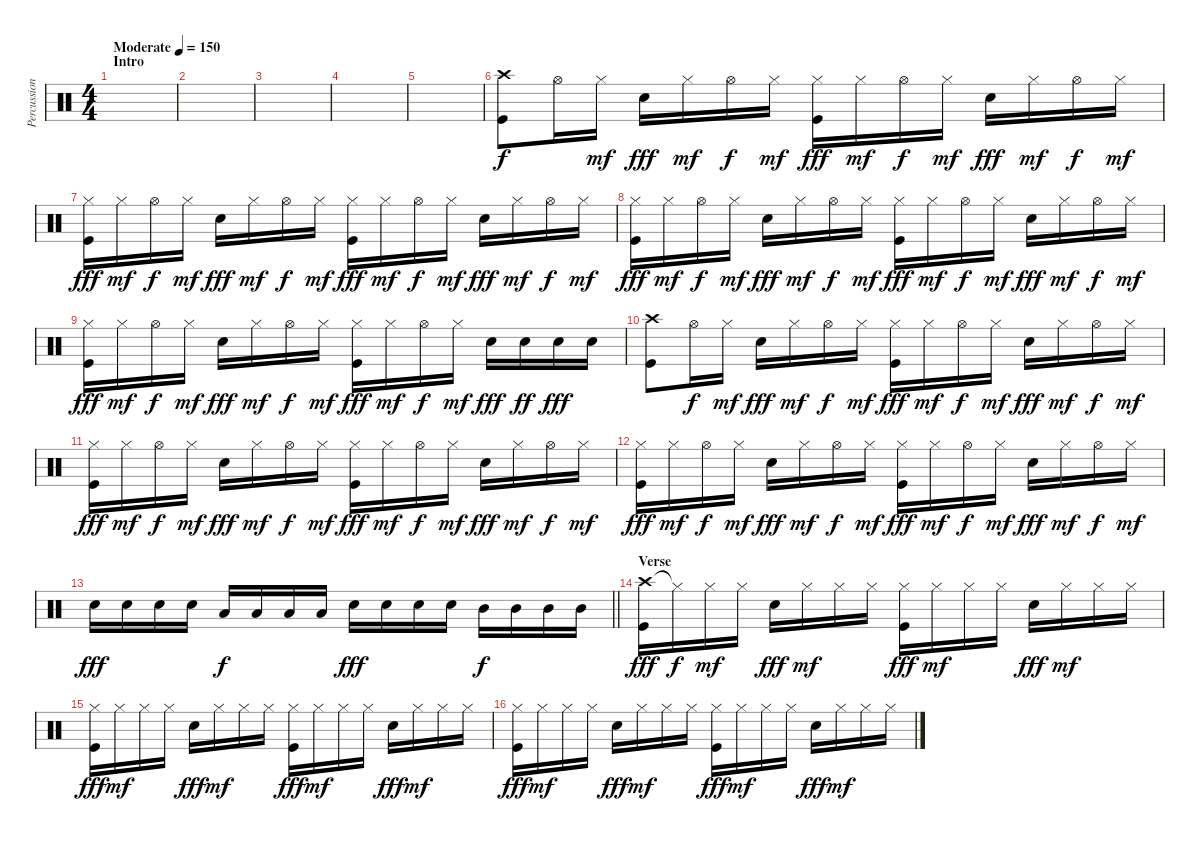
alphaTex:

\track ("Percussion" "Percussion") {instrument percussion}
\staff {score}
\articulation defaults
\ts (4 4)
\section ("" "Intro")
\tempo (150 "Moderate")
\clef neutral
\ks c
|
|
|
|
|
("Crash high (hit)" "Kick (hit)").8 "Hi-Hat (open)".16{dy f} "Hi-Hat (closed)".16{dy mf} "Electric Snare (hit)".16{dy fff} "Hi-Hat (closed)".16{dy mf} "Hi-Hat (open)".16{dy f} "Hi-Hat (closed)".16{dy mf} ("Hi-Hat (closed)" "Kick (hit)").16{dy fff} "Hi-Hat (closed)".16{dy mf} "Hi-Hat (open)".16{dy f} "Hi-Hat (closed)".16{dy mf} "Electric Snare (hit)".16{dy fff} "Hi-Hat (closed)".16{dy mf} "Hi-Hat (open)".16{dy f} "Hi-Hat (closed)".16{dy mf} |
("Hi-Hat (closed)" "Kick (hit)").16{dy fff} "Hi-Hat (closed)".16{dy mf} "Hi-Hat (open)".16{dy f} "Hi-Hat (closed)".16{dy mf} "Electric Snare (hit)".16{dy fff} "Hi-Hat (closed)".16{dy mf} "Hi-Hat (open)".16{dy f} "Hi-Hat (closed)".16{dy mf} ("Hi-Hat (closed)" "Kick (hit)").16{dy fff} "Hi-Hat (closed)".16{dy mf} "Hi-Hat (open)".16{dy f} "Hi-Hat (closed)".16{dy mf} "Electric Snare (hit)".16{dy fff} "Hi-Hat (closed)".16{dy mf} "Hi-Hat (open)".16{dy f} "Hi-Hat (closed)".16{dy mf} |
("Hi-Hat (closed)" "Kick (hit)").16{dy fff} "Hi-Hat (closed)".16{dy mf} "Hi-Hat (open)".16{dy f} "Hi-Hat (closed)".16{dy mf} "Electric Snare (hit)".16{dy fff} "Hi-Hat (closed)".16{dy mf} "Hi-Hat (open)".16{dy f} "Hi-Hat (closed)".16{dy mf} ("Hi-Hat (closed)" "Kick (hit)").16{dy fff} "Hi-Hat (closed)".16{dy mf} "Hi-Hat (open)".16{dy f} "Hi-Hat (closed)".16{dy mf} "Electric Snare (hit)".16{dy fff} "Hi-Hat (closed)".16{dy mf} "Hi-Hat (open)".16{dy f} "Hi-Hat (closed)".16{dy mf} |
("Hi-Hat (closed)" "Kick (hit)").16{dy fff} "Hi-Hat (closed)".16{dy mf} "Hi-Hat (open)".16{dy f} "Hi-Hat (closed)".16{dy mf} "Electric Snare (hit)".16{dy fff} "Hi-Hat (closed)".16{dy mf} "Hi-Hat (open)".16{dy f} "Hi-Hat (closed)".16{dy mf} ("Hi-Hat (closed)" "Kick (hit)").16{dy fff} "Hi-Hat (closed)".16{dy mf} "Hi-Hat (open)".16{dy f} "Hi-Hat (closed)".16{dy mf} "Electric Snare (hit)".16{dy fff} "Electric Snare (hit)".16{dy ff} "Electric Snare (hit)".16{dy fff} "Electric Snare (hit)".16 |
("Crash high (hit)" "Kick (hit)").8 "Hi-Hat (open)".16{dy f} "Hi-Hat (closed)".16{dy mf} "Electric Snare (hit)".16{dy fff} "Hi-Hat (closed)".16{dy mf} "Hi-Hat (open)".16{dy f} "Hi-Hat (closed)".16{dy mf} ("Hi-Hat (closed)" "Kick (hit)").16{dy fff} "Hi-Hat (closed)".16{dy mf} "Hi-Hat (open)".16{dy f} "Hi-Hat (closed)".16{dy mf} "Electric Snare (hit)".16{dy fff} "Hi-Hat (closed)".16{dy mf} "Hi-Hat (open)".16{dy f} "Hi-Hat (closed)".16{dy mf} |
("Hi-Hat (closed)" "Kick (hit)").16{dy fff} "Hi-Hat (closed)".16{dy mf} "Hi-Hat (open)".16{dy f} "Hi-Hat (closed)".16{dy mf} "Electric Snare (hit)".16{dy fff} "Hi-Hat (closed)".16{dy mf} "Hi-Hat (open)".16{dy f} "Hi-Hat (closed)".16{dy mf} ("Hi-Hat (closed)" "Kick (hit)").16{dy fff} "Hi-Hat (closed)".16{dy mf} "Hi-Hat (open)".16{dy f} "Hi-Hat (closed)".16{dy mf} "Electric Snare (hit)".16{dy fff} "Hi-Hat (closed)".16{dy mf} "Hi-Hat (open)".16{dy f} "Hi-Hat (closed)".16{dy mf} |
("Hi-Hat (closed)" "Kick (hit)").16{dy fff} "Hi-Hat (closed)".16{dy mf} "Hi-Hat (open)".16{dy f} "Hi-Hat (closed)".16{dy mf} "Electric Snare (hit)".16{dy fff} "Hi-Hat (closed)".16{dy mf} "Hi-Hat (open)".16{dy f} "Hi-Hat (closed)".16{dy mf} ("Hi-Hat (closed)" "Kick (hit)").16{dy fff} "Hi-Hat (closed)".16{dy mf} "Hi-Hat (open)".16{dy f} "Hi-Hat (closed)".16{dy mf} "Electric Snare (hit)".16{dy fff} "Hi-Hat (closed)".16{dy mf} "Hi-Hat (open)".16{dy f} "Hi-Hat (closed)".16{dy mf} |
\barLineRight lightlight "Electric Snare (hit)".16{dy fff} "Electric Snare (hit)".16 "Electric Snare (hit)".16 "Electric Snare (hit)".16 "Low Tom (hit)".16{dy f} "Low Tom (hit)".16 "Low Tom (hit)".16 "Low Tom (hit)".16 "Electric Snare (hit)".16{dy fff} "Electric Snare (hit)".16 "Electric Snare (hit)".16 "Electric Snare (hit)".16 "Mid Tom (hit)".16{dy f} "Mid Tom (hit)".16 "Mid Tom (hit)".16 "Mid Tom (hit)".16
|
\section ("" "Verse")
("Crash high (hit)" "Kick (hit)").16{dy fff} "Hi-Hat (closed)"{t}.16{dy f} "Hi-Hat (closed)".16{dy mf} "Hi-Hat (closed)".16 "Electric Snare (hit)".16{dy fff} "Hi-Hat (closed)".16{dy mf} "Hi-Hat (closed)".16 "Hi-Hat (closed)".16 ("Hi-Hat (closed)" "Kick (hit)").16{dy fff} "Hi-Hat (closed)".16{dy mf} "Hi-Hat (closed)".16 "Hi-Hat (closed)".16 "Electric Snare (hit)".16{dy fff} "Hi-Hat (closed)".16{dy mf} "Hi-Hat (closed)".16 "Hi-Hat (closed)".16 |
("Hi-Hat (closed)" "Kick (hit)").16{dy fff} "Hi-Hat (closed)".16{dy mf} "Hi-Hat (closed)".16 "Hi-Hat (closed)".16 "Electric Snare (hit)".16{dy fff} "Hi-Hat (closed)".16{dy mf} "Hi-Hat (closed)".16 "Hi-Hat (closed)".16 ("Hi-Hat (closed)" "Kick (hit)").16{dy fff} "Hi-Hat (closed)".16{dy mf} "Hi-Hat (closed)".16 "Hi-Hat (closed)".16 "Electric Snare (hit)".16{dy fff} "Hi-Hat (closed)".16{dy mf} "Hi-Hat (closed)".16 "Hi-Hat (closed)".16 |
("Hi-Hat (closed)" "Kick (hit)").16{dy fff} "Hi-Hat (closed)".16{dy mf} "Hi-Hat (closed)".16 "Hi-Hat (closed)".16 "Electric Snare (hit)".16{dy fff} "Hi-Hat (closed)".16{dy mf} "Hi-Hat (closed)".16 "Hi-Hat (closed)".16 ("Hi-Hat (closed)" "Kick (hit)").16{dy fff} "Hi-Hat (closed)".16{dy mf} "Hi-Hat (closed)".16 "Hi-Hat (closed)".16 "Electric Snare (hit)".16{dy fff} "Hi-Hat (closed)".16{dy mf} "Hi-Hat (closed)".16 "Hi-Hat (closed)".16
